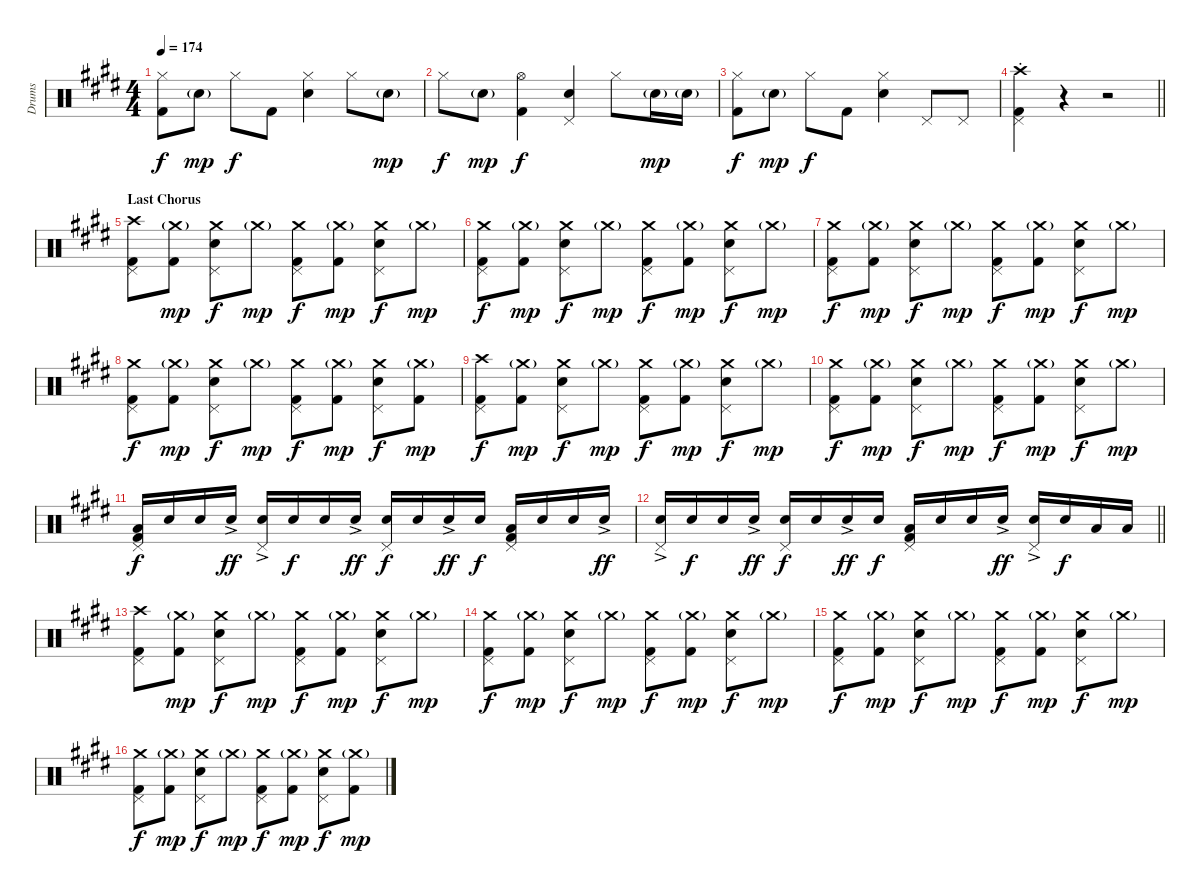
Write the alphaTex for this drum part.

\track ("Drums" "Drums") {instrument percussion bank 177}
\staff {score}
\articulation defaults
\ts (4 4)
\tempo 174
\clef neutral
\ks e
("Hi-Hat (closed)" "Kick (hit) 2").8{dy f} "Electric Snare (hit)"{g}.8{dy mp} "Hi-Hat (closed)".8{dy f} "Kick (hit) 2".8 ("Hi-Hat (closed)" "Electric Snare (hit)").4 "Hi-Hat (closed)".8 "Electric Snare (hit)"{g}.8{dy mp} |
"Hi-Hat (closed)".8{dy f} "Electric Snare (hit)"{g}.8{dy mp} ("Hi-Hat (open)" "Kick (hit) 2").4{dy f} ("Pedal Hi-Hat (hit)" "Electric Snare (hit)").4 "Hi-Hat (closed)".8 "Electric Snare (hit)"{g}.16{dy mp} "Electric Snare (hit)"{g}.16 |
("Hi-Hat (closed)" "Kick (hit) 2").8{dy f} "Electric Snare (hit)"{g}.8{dy mp} "Hi-Hat (closed)".8{dy f} "Kick (hit) 2".8 ("Hi-Hat (closed)" "Electric Snare (hit)").4 "Pedal Hi-Hat (hit)".8 "Pedal Hi-Hat (hit)".8 |
\barLineRight lightlight
("Crash high (hit)"{st} "Kick (hit) 2" "Pedal Hi-Hat (hit)").4 r.4 r.2 |
\section ("" "Last Chorus")
("Crash high (hit)" "Kick (hit) 2" "Pedal Hi-Hat (hit)").8 ("Crash medium (hit)"{g} "Kick (hit) 2").8{dy mp} ("Crash medium (hit)" "Electric Snare (hit)" "Pedal Hi-Hat (hit)").8{dy f} "Crash medium (hit)"{g}.8{dy mp} ("Crash medium (hit)" "Kick (hit) 2" "Pedal Hi-Hat (hit)").8{dy f} ("Crash medium (hit)"{g} "Kick (hit) 2").8{dy mp} ("Crash medium (hit)" "Electric Snare (hit)" "Pedal Hi-Hat (hit)").8{dy f} "Crash medium (hit)"{g}.8{dy mp} |
("Crash medium (hit)" "Kick (hit) 2" "Pedal Hi-Hat (hit)").8{dy f} ("Crash medium (hit)"{g} "Kick (hit) 2").8{dy mp} ("Crash medium (hit)" "Electric Snare (hit)" "Pedal Hi-Hat (hit)").8{dy f} "Crash medium (hit)"{g}.8{dy mp} ("Crash medium (hit)" "Kick (hit) 2" "Pedal Hi-Hat (hit)").8{dy f} ("Crash medium (hit)"{g} "Kick (hit) 2").8{dy mp} ("Crash medium (hit)" "Electric Snare (hit)" "Pedal Hi-Hat (hit)").8{dy f} "Crash medium (hit)"{g}.8{dy mp} |
("Crash medium (hit)" "Kick (hit) 2" "Pedal Hi-Hat (hit)").8{dy f} ("Crash medium (hit)"{g} "Kick (hit) 2").8{dy mp} ("Crash medium (hit)" "Electric Snare (hit)" "Pedal Hi-Hat (hit)").8{dy f} "Crash medium (hit)"{g}.8{dy mp} ("Crash medium (hit)" "Kick (hit) 2" "Pedal Hi-Hat (hit)").8{dy f} ("Crash medium (hit)"{g} "Kick (hit) 2").8{dy mp} ("Crash medium (hit)" "Electric Snare (hit)" "Pedal Hi-Hat (hit)").8{dy f} "Crash medium (hit)"{g}.8{dy mp} |
("Crash medium (hit)" "Kick (hit) 2" "Pedal Hi-Hat (hit)").8{dy f} ("Crash medium (hit)"{g} "Kick (hit) 2").8{dy mp} ("Crash medium (hit)" "Electric Snare (hit)" "Pedal Hi-Hat (hit)").8{dy f} "Crash medium (hit)"{g}.8{dy mp} ("Crash medium (hit)" "Kick (hit) 2" "Pedal Hi-Hat (hit)").8{dy f} ("Crash medium (hit)"{g} "Kick (hit) 2").8{dy mp} ("Crash medium (hit)" "Electric Snare (hit)" "Pedal Hi-Hat (hit)").8{dy f} ("Crash medium (hit)"{g} "Kick (hit) 2").8{dy mp} |
("Crash high (hit)" "Kick (hit) 2" "Pedal Hi-Hat (hit)").8{dy f} ("Crash medium (hit)"{g} "Kick (hit) 2").8{dy mp} ("Crash medium (hit)" "Electric Snare (hit)" "Pedal Hi-Hat (hit)").8{dy f} "Crash medium (hit)"{g}.8{dy mp} ("Crash medium (hit)" "Kick (hit) 2" "Pedal Hi-Hat (hit)").8{dy f} ("Crash medium (hit)"{g} "Kick (hit) 2").8{dy mp} ("Crash medium (hit)" "Electric Snare (hit)" "Pedal Hi-Hat (hit)").8{dy f} "Crash medium (hit)"{g}.8{dy mp} |
("Crash medium (hit)" "Kick (hit) 2" "Pedal Hi-Hat (hit)").8{dy f} ("Crash medium (hit)"{g} "Kick (hit) 2").8{dy mp} ("Crash medium (hit)" "Electric Snare (hit)" "Pedal Hi-Hat (hit)").8{dy f} "Crash medium (hit)"{g}.8{dy mp} ("Crash medium (hit)" "Kick (hit) 2" "Pedal Hi-Hat (hit)").8{dy f} ("Crash medium (hit)"{g} "Kick (hit) 2").8{dy mp} ("Crash medium (hit)" "Electric Snare (hit)" "Pedal Hi-Hat (hit)").8{dy f} "Crash medium (hit)"{g}.8{dy mp} |
("Kick (hit) 2" "Low Tom (hit)" "Pedal Hi-Hat (hit)").16{dy f} "Electric Snare (hit)".16 "Electric Snare (hit)".16 "Electric Snare (hit)"{ac}.16{dy ff} ("Electric Snare (hit)"{ac} "Pedal Hi-Hat (hit)").16 "Electric Snare (hit)".16{dy f} "Electric Snare (hit)".16 "Electric Snare (hit)"{ac}.16{dy ff} ("Electric Snare (hit)" "Pedal Hi-Hat (hit)").16{dy f} "Electric Snare (hit)".16 "Electric Snare (hit)"{ac}.16{dy ff} "Electric Snare (hit)".16{dy f} ("Kick (hit) 2" "Low Tom (hit)" "Pedal Hi-Hat (hit)").16 "Electric Snare (hit)".16 "Electric Snare (hit)".16 "Electric Snare (hit)"{ac}.16{dy ff} |
\barLineRight lightlight
("Electric Snare (hit)"{ac} "Pedal Hi-Hat (hit)").16 "Electric Snare (hit)".16{dy f} "Electric Snare (hit)".16 "Electric Snare (hit)"{ac}.16{dy ff} ("Electric Snare (hit)" "Pedal Hi-Hat (hit)").16{dy f} "Electric Snare (hit)".16 "Electric Snare (hit)"{ac}.16{dy ff} "Electric Snare (hit)".16{dy f} ("Kick (hit) 2" "Low Tom (hit)" "Pedal Hi-Hat (hit)").16 "Electric Snare (hit)".16 "Electric Snare (hit)".16 "Electric Snare (hit)"{ac}.16{dy ff} ("Electric Snare (hit)"{ac} "Pedal Hi-Hat (hit)").16 "Electric Snare (hit)".16{dy f} "Low Tom (hit)".16 "Low Tom (hit)".16 |
("Crash high (hit)" "Kick (hit) 2" "Pedal Hi-Hat (hit)").8 ("Crash medium (hit)"{g} "Kick (hit) 2").8{dy mp} ("Crash medium (hit)" "Electric Snare (hit)" "Pedal Hi-Hat (hit)").8{dy f} "Crash medium (hit)"{g}.8{dy mp} ("Crash medium (hit)" "Kick (hit) 2" "Pedal Hi-Hat (hit)").8{dy f} ("Crash medium (hit)"{g} "Kick (hit) 2").8{dy mp} ("Crash medium (hit)" "Electric Snare (hit)" "Pedal Hi-Hat (hit)").8{dy f} "Crash medium (hit)"{g}.8{dy mp} |
("Crash medium (hit)" "Kick (hit) 2" "Pedal Hi-Hat (hit)").8{dy f} ("Crash medium (hit)"{g} "Kick (hit) 2").8{dy mp} ("Crash medium (hit)" "Electric Snare (hit)" "Pedal Hi-Hat (hit)").8{dy f} "Crash medium (hit)"{g}.8{dy mp} ("Crash medium (hit)" "Kick (hit) 2" "Pedal Hi-Hat (hit)").8{dy f} ("Crash medium (hit)"{g} "Kick (hit) 2").8{dy mp} ("Crash medium (hit)" "Electric Snare (hit)" "Pedal Hi-Hat (hit)").8{dy f} "Crash medium (hit)"{g}.8{dy mp} |
("Crash medium (hit)" "Kick (hit) 2" "Pedal Hi-Hat (hit)").8{dy f} ("Crash medium (hit)"{g} "Kick (hit) 2").8{dy mp} ("Crash medium (hit)" "Electric Snare (hit)" "Pedal Hi-Hat (hit)").8{dy f} "Crash medium (hit)"{g}.8{dy mp} ("Crash medium (hit)" "Kick (hit) 2" "Pedal Hi-Hat (hit)").8{dy f} ("Crash medium (hit)"{g} "Kick (hit) 2").8{dy mp} ("Crash medium (hit)" "Electric Snare (hit)" "Pedal Hi-Hat (hit)").8{dy f} "Crash medium (hit)"{g}.8{dy mp} |
("Crash medium (hit)" "Kick (hit) 2" "Pedal Hi-Hat (hit)").8{dy f} ("Crash medium (hit)"{g} "Kick (hit) 2").8{dy mp} ("Crash medium (hit)" "Electric Snare (hit)" "Pedal Hi-Hat (hit)").8{dy f} "Crash medium (hit)"{g}.8{dy mp} ("Crash medium (hit)" "Kick (hit) 2" "Pedal Hi-Hat (hit)").8{dy f} ("Crash medium (hit)"{g} "Kick (hit) 2").8{dy mp} ("Crash medium (hit)" "Electric Snare (hit)" "Pedal Hi-Hat (hit)").8{dy f} ("Crash medium (hit)"{g} "Kick (hit) 2").8{dy mp}
